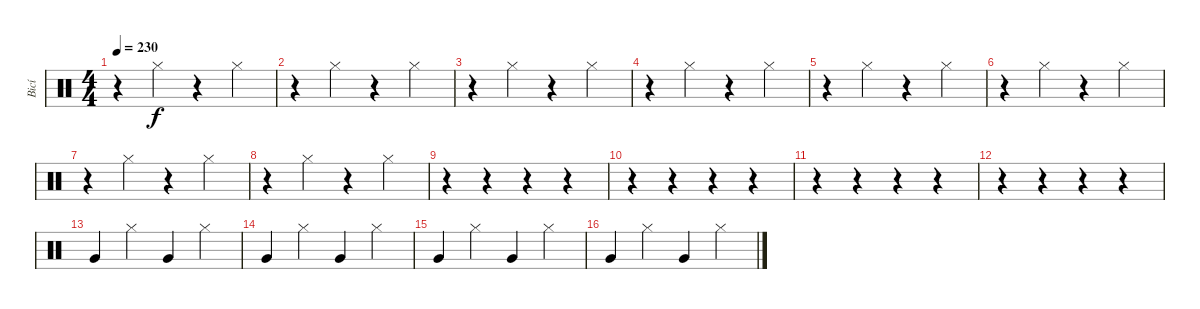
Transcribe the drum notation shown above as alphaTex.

\track ("Bicí" "Bicí") {instrument percussion}
\staff {score}
\articulation defaults
\ts (4 4)
\tempo 230
\clef neutral
\ks c
r.4{dy f} "Hi-Hat (closed)".4 r.4 "Hi-Hat (closed)".4 |
r.4 "Hi-Hat (closed)".4 r.4 "Hi-Hat (closed)".4 |
r.4 "Hi-Hat (closed)".4 r.4 "Hi-Hat (closed)".4 |
r.4 "Hi-Hat (closed)".4 r.4 "Hi-Hat (closed)".4 |
r.4 "Hi-Hat (closed)".4 r.4 "Hi-Hat (closed)".4 |
r.4 "Hi-Hat (closed)".4 r.4 "Hi-Hat (closed)".4 |
r.4 "Hi-Hat (closed)".4 r.4 "Hi-Hat (closed)".4 |
r.4 "Hi-Hat (closed)".4 r.4 "Hi-Hat (closed)".4 |
r.4 r.4 r.4 r.4 |
r.4 r.4 r.4 r.4 |
r.4 r.4 r.4 r.4 |
r.4 r.4 r.4 r.4 |
"Very Low Tom (hit)".4 "Hi-Hat (closed)".4 "Very Low Tom (hit)".4 "Hi-Hat (closed)".4 |
"Very Low Tom (hit)".4 "Hi-Hat (closed)".4 "Very Low Tom (hit)".4 "Hi-Hat (closed)".4 |
"Very Low Tom (hit)".4 "Hi-Hat (closed)".4 "Very Low Tom (hit)".4 "Hi-Hat (closed)".4 |
"Very Low Tom (hit)".4 "Hi-Hat (closed)".4 "Very Low Tom (hit)".4 "Hi-Hat (closed)".4
